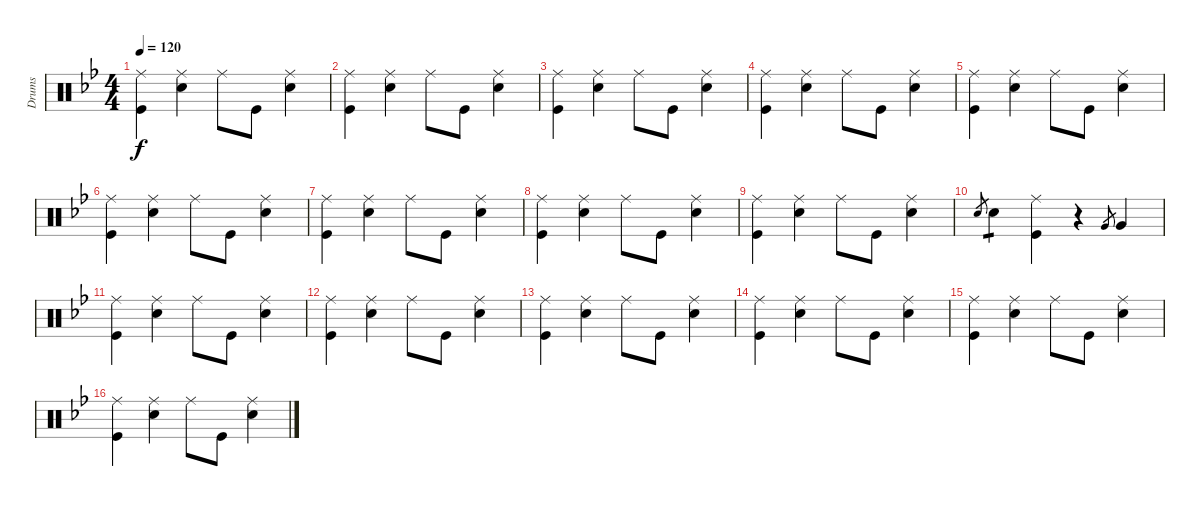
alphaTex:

\track ("Drums" "Drums") {instrument percussion}
\staff {score}
\articulation defaults
\ts (4 4)
\tempo 120
\clef neutral
\ks bb
("Ride (middle)" "Kick (hit)").4{dy f} ("Ride (middle)" "Snare (hit) 2").4 "Ride (middle)".8 "Kick (hit)".8 ("Ride (middle)" "Snare (hit) 2").4 |
("Ride (middle)" "Kick (hit)").4 ("Ride (middle)" "Snare (hit) 2").4 "Ride (middle)".8 "Kick (hit)".8 ("Ride (middle)" "Snare (hit) 2").4 |
("Ride (middle)" "Kick (hit)").4 ("Ride (middle)" "Snare (hit) 2").4 "Ride (middle)".8 "Kick (hit)".8 ("Ride (middle)" "Snare (hit) 2").4 |
("Ride (middle)" "Kick (hit)").4 ("Ride (middle)" "Snare (hit) 2").4 "Ride (middle)".8 "Kick (hit)".8 ("Ride (middle)" "Snare (hit) 2").4 |
("Ride (middle)" "Kick (hit)").4 ("Ride (middle)" "Snare (hit) 2").4 "Ride (middle)".8 "Kick (hit)".8 ("Ride (middle)" "Snare (hit) 2").4 |
("Ride (middle)" "Kick (hit)").4 ("Ride (middle)" "Snare (hit) 2").4 "Ride (middle)".8 "Kick (hit)".8 ("Ride (middle)" "Snare (hit) 2").4 |
("Ride (middle)" "Kick (hit)").4 ("Ride (middle)" "Snare (hit) 2").4 "Ride (middle)".8 "Kick (hit)".8 ("Ride (middle)" "Snare (hit) 2").4 |
("Ride (middle)" "Kick (hit)").4 ("Ride (middle)" "Snare (hit) 2").4 "Ride (middle)".8 "Kick (hit)".8 ("Ride (middle)" "Snare (hit) 2").4 |
("Ride (middle)" "Kick (hit)").4 ("Ride (middle)" "Snare (hit) 2").4 "Ride (middle)".8 "Kick (hit)".8 ("Ride (middle)" "Snare (hit) 2").4 |
"Snare (hit) 2".8{gr} "Snare (hit) 2".4{tp 1} ("Ride (middle)" "Kick (hit)").4 r.4 "Very Low Tom (hit)".8{gr} "Very Low Tom (hit)".4 |
("Ride (middle)" "Kick (hit)").4 ("Ride (middle)" "Snare (hit) 2").4 "Ride (middle)".8 "Kick (hit)".8 ("Ride (middle)" "Snare (hit) 2").4 |
("Ride (middle)" "Kick (hit)").4 ("Ride (middle)" "Snare (hit) 2").4 "Ride (middle)".8 "Kick (hit)".8 ("Ride (middle)" "Snare (hit) 2").4 |
("Ride (middle)" "Kick (hit)").4 ("Ride (middle)" "Snare (hit) 2").4 "Ride (middle)".8 "Kick (hit)".8 ("Ride (middle)" "Snare (hit) 2").4 |
("Ride (middle)" "Kick (hit)").4 ("Ride (middle)" "Snare (hit) 2").4 "Ride (middle)".8 "Kick (hit)".8 ("Ride (middle)" "Snare (hit) 2").4 |
("Ride (middle)" "Kick (hit)").4 ("Ride (middle)" "Snare (hit) 2").4 "Ride (middle)".8 "Kick (hit)".8 ("Ride (middle)" "Snare (hit) 2").4 |
("Ride (middle)" "Kick (hit)").4 ("Ride (middle)" "Snare (hit) 2").4 "Ride (middle)".8 "Kick (hit)".8 ("Ride (middle)" "Snare (hit) 2").4
